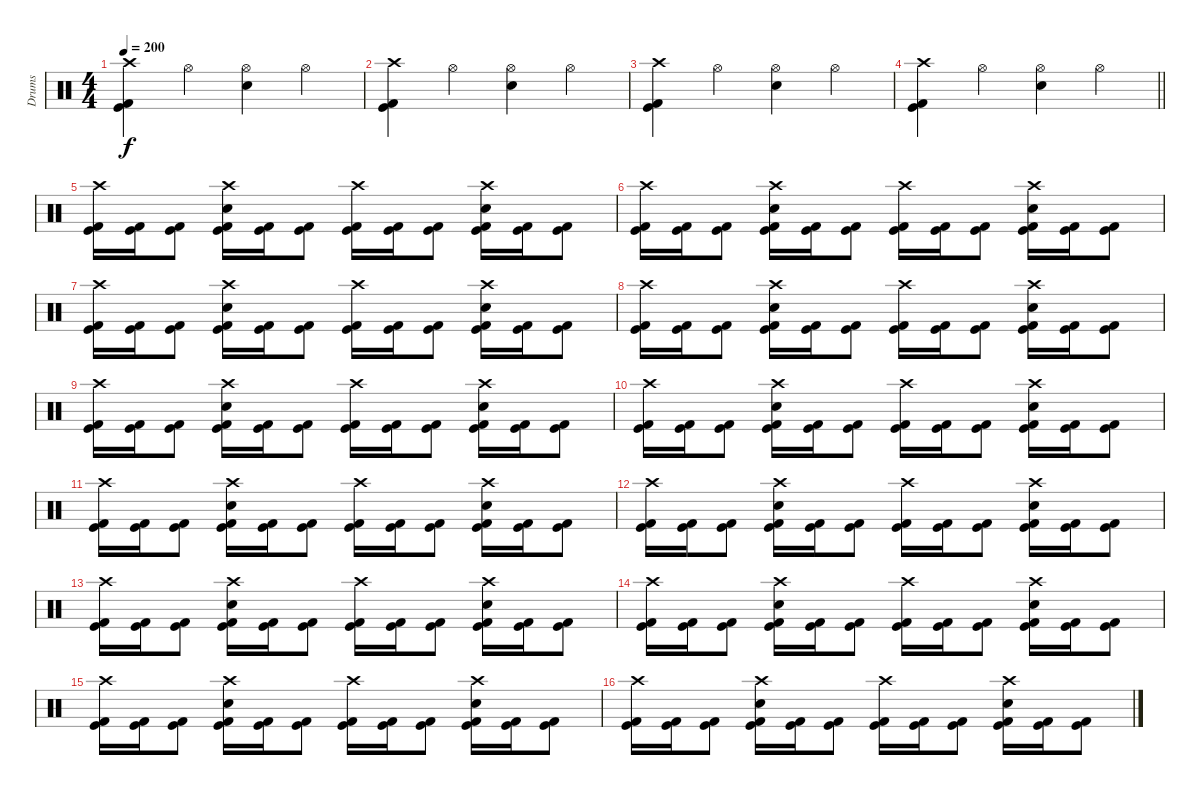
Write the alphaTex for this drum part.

\track ("Drums" "Drums") {instrument percussion}
\staff {score}
\articulation defaults
\ts (4 4)
\tempo 200
\clef neutral
\ks c
("Crash high (hit)" "Kick (hit) 2" "Kick (hit)").4{dy f} "Hi-Hat (open)".4 ("Hi-Hat (open)" "Electric Snare (hit)").4 "Hi-Hat (open)".4 |
("Crash high (hit)" "Kick (hit) 2" "Kick (hit)").4 "Hi-Hat (open)".4 ("Hi-Hat (open)" "Electric Snare (hit)").4 "Hi-Hat (open)".4 |
("Crash high (hit)" "Kick (hit) 2" "Kick (hit)").4 "Hi-Hat (open)".4 ("Hi-Hat (open)" "Electric Snare (hit)").4 "Hi-Hat (open)".4 |
\barLineRight lightlight
("Crash high (hit)" "Kick (hit) 2" "Kick (hit)").4 "Hi-Hat (open)".4 ("Hi-Hat (open)" "Electric Snare (hit)").4 "Hi-Hat (open)".4 |
("Crash high (hit)" "Kick (hit) 2" "Kick (hit)").16 ("Kick (hit) 2" "Kick (hit)").16 ("Kick (hit) 2" "Kick (hit)").8 ("Crash high (hit)" "Electric Snare (hit)" "Kick (hit) 2" "Kick (hit)").16 ("Kick (hit) 2" "Kick (hit)").16 ("Kick (hit) 2" "Kick (hit)").8 ("Crash high (hit)" "Kick (hit) 2" "Kick (hit)").16 ("Kick (hit) 2" "Kick (hit)").16 ("Kick (hit) 2" "Kick (hit)").8 ("Crash high (hit)" "Electric Snare (hit)" "Kick (hit) 2" "Kick (hit)").16 ("Kick (hit) 2" "Kick (hit)").16 ("Kick (hit) 2" "Kick (hit)").8 |
("Crash high (hit)" "Kick (hit) 2" "Kick (hit)").16 ("Kick (hit) 2" "Kick (hit)").16 ("Kick (hit) 2" "Kick (hit)").8 ("Crash high (hit)" "Electric Snare (hit)" "Kick (hit) 2" "Kick (hit)").16 ("Kick (hit) 2" "Kick (hit)").16 ("Kick (hit) 2" "Kick (hit)").8 ("Crash high (hit)" "Kick (hit) 2" "Kick (hit)").16 ("Kick (hit) 2" "Kick (hit)").16 ("Kick (hit) 2" "Kick (hit)").8 ("Crash high (hit)" "Electric Snare (hit)" "Kick (hit) 2" "Kick (hit)").16 ("Kick (hit) 2" "Kick (hit)").16 ("Kick (hit) 2" "Kick (hit)").8 |
("Crash high (hit)" "Kick (hit) 2" "Kick (hit)").16 ("Kick (hit) 2" "Kick (hit)").16 ("Kick (hit) 2" "Kick (hit)").8 ("Crash high (hit)" "Electric Snare (hit)" "Kick (hit) 2" "Kick (hit)").16 ("Kick (hit) 2" "Kick (hit)").16 ("Kick (hit) 2" "Kick (hit)").8 ("Crash high (hit)" "Kick (hit) 2" "Kick (hit)").16 ("Kick (hit) 2" "Kick (hit)").16 ("Kick (hit) 2" "Kick (hit)").8 ("Crash high (hit)" "Electric Snare (hit)" "Kick (hit) 2" "Kick (hit)").16 ("Kick (hit) 2" "Kick (hit)").16 ("Kick (hit) 2" "Kick (hit)").8 |
("Crash high (hit)" "Kick (hit) 2" "Kick (hit)").16 ("Kick (hit) 2" "Kick (hit)").16 ("Kick (hit) 2" "Kick (hit)").8 ("Crash high (hit)" "Electric Snare (hit)" "Kick (hit) 2" "Kick (hit)").16 ("Kick (hit) 2" "Kick (hit)").16 ("Kick (hit) 2" "Kick (hit)").8 ("Crash high (hit)" "Kick (hit) 2" "Kick (hit)").16 ("Kick (hit) 2" "Kick (hit)").16 ("Kick (hit) 2" "Kick (hit)").8 ("Crash high (hit)" "Electric Snare (hit)" "Kick (hit) 2" "Kick (hit)").16 ("Kick (hit) 2" "Kick (hit)").16 ("Kick (hit) 2" "Kick (hit)").8 |
("Crash high (hit)" "Kick (hit) 2" "Kick (hit)").16 ("Kick (hit) 2" "Kick (hit)").16 ("Kick (hit) 2" "Kick (hit)").8 ("Crash high (hit)" "Electric Snare (hit)" "Kick (hit) 2" "Kick (hit)").16 ("Kick (hit) 2" "Kick (hit)").16 ("Kick (hit) 2" "Kick (hit)").8 ("Crash high (hit)" "Kick (hit) 2" "Kick (hit)").16 ("Kick (hit) 2" "Kick (hit)").16 ("Kick (hit) 2" "Kick (hit)").8 ("Crash high (hit)" "Electric Snare (hit)" "Kick (hit) 2" "Kick (hit)").16 ("Kick (hit) 2" "Kick (hit)").16 ("Kick (hit) 2" "Kick (hit)").8 |
("Crash high (hit)" "Kick (hit) 2" "Kick (hit)").16 ("Kick (hit) 2" "Kick (hit)").16 ("Kick (hit) 2" "Kick (hit)").8 ("Crash high (hit)" "Electric Snare (hit)" "Kick (hit) 2" "Kick (hit)").16 ("Kick (hit) 2" "Kick (hit)").16 ("Kick (hit) 2" "Kick (hit)").8 ("Crash high (hit)" "Kick (hit) 2" "Kick (hit)").16 ("Kick (hit) 2" "Kick (hit)").16 ("Kick (hit) 2" "Kick (hit)").8 ("Crash high (hit)" "Electric Snare (hit)" "Kick (hit) 2" "Kick (hit)").16 ("Kick (hit) 2" "Kick (hit)").16 ("Kick (hit) 2" "Kick (hit)").8 |
("Crash high (hit)" "Kick (hit) 2" "Kick (hit)").16 ("Kick (hit) 2" "Kick (hit)").16 ("Kick (hit) 2" "Kick (hit)").8 ("Crash high (hit)" "Electric Snare (hit)" "Kick (hit) 2" "Kick (hit)").16 ("Kick (hit) 2" "Kick (hit)").16 ("Kick (hit) 2" "Kick (hit)").8 ("Crash high (hit)" "Kick (hit) 2" "Kick (hit)").16 ("Kick (hit) 2" "Kick (hit)").16 ("Kick (hit) 2" "Kick (hit)").8 ("Crash high (hit)" "Electric Snare (hit)" "Kick (hit) 2" "Kick (hit)").16 ("Kick (hit) 2" "Kick (hit)").16 ("Kick (hit) 2" "Kick (hit)").8 |
("Crash high (hit)" "Kick (hit) 2" "Kick (hit)").16 ("Kick (hit) 2" "Kick (hit)").16 ("Kick (hit) 2" "Kick (hit)").8 ("Crash high (hit)" "Electric Snare (hit)" "Kick (hit) 2" "Kick (hit)").16 ("Kick (hit) 2" "Kick (hit)").16 ("Kick (hit) 2" "Kick (hit)").8 ("Crash high (hit)" "Kick (hit) 2" "Kick (hit)").16 ("Kick (hit) 2" "Kick (hit)").16 ("Kick (hit) 2" "Kick (hit)").8 ("Crash high (hit)" "Electric Snare (hit)" "Kick (hit) 2" "Kick (hit)").16 ("Kick (hit) 2" "Kick (hit)").16 ("Kick (hit) 2" "Kick (hit)").8 |
("Crash high (hit)" "Kick (hit) 2" "Kick (hit)").16 ("Kick (hit) 2" "Kick (hit)").16 ("Kick (hit) 2" "Kick (hit)").8 ("Crash high (hit)" "Electric Snare (hit)" "Kick (hit) 2" "Kick (hit)").16 ("Kick (hit) 2" "Kick (hit)").16 ("Kick (hit) 2" "Kick (hit)").8 ("Crash high (hit)" "Kick (hit) 2" "Kick (hit)").16 ("Kick (hit) 2" "Kick (hit)").16 ("Kick (hit) 2" "Kick (hit)").8 ("Crash high (hit)" "Electric Snare (hit)" "Kick (hit) 2" "Kick (hit)").16 ("Kick (hit) 2" "Kick (hit)").16 ("Kick (hit) 2" "Kick (hit)").8 |
("Crash high (hit)" "Kick (hit) 2" "Kick (hit)").16 ("Kick (hit) 2" "Kick (hit)").16 ("Kick (hit) 2" "Kick (hit)").8 ("Crash high (hit)" "Electric Snare (hit)" "Kick (hit) 2" "Kick (hit)").16 ("Kick (hit) 2" "Kick (hit)").16 ("Kick (hit) 2" "Kick (hit)").8 ("Crash high (hit)" "Kick (hit) 2" "Kick (hit)").16 ("Kick (hit) 2" "Kick (hit)").16 ("Kick (hit) 2" "Kick (hit)").8 ("Crash high (hit)" "Electric Snare (hit)" "Kick (hit) 2" "Kick (hit)").16 ("Kick (hit) 2" "Kick (hit)").16 ("Kick (hit) 2" "Kick (hit)").8 |
("Crash high (hit)" "Kick (hit) 2" "Kick (hit)").16 ("Kick (hit) 2" "Kick (hit)").16 ("Kick (hit) 2" "Kick (hit)").8 ("Crash high (hit)" "Electric Snare (hit)" "Kick (hit) 2" "Kick (hit)").16 ("Kick (hit) 2" "Kick (hit)").16 ("Kick (hit) 2" "Kick (hit)").8 ("Crash high (hit)" "Kick (hit) 2" "Kick (hit)").16 ("Kick (hit) 2" "Kick (hit)").16 ("Kick (hit) 2" "Kick (hit)").8 ("Crash high (hit)" "Electric Snare (hit)" "Kick (hit) 2" "Kick (hit)").16 ("Kick (hit) 2" "Kick (hit)").16 ("Kick (hit) 2" "Kick (hit)").8 |
("Crash high (hit)" "Kick (hit) 2" "Kick (hit)").16 ("Kick (hit) 2" "Kick (hit)").16 ("Kick (hit) 2" "Kick (hit)").8 ("Crash high (hit)" "Electric Snare (hit)" "Kick (hit) 2" "Kick (hit)").16 ("Kick (hit) 2" "Kick (hit)").16 ("Kick (hit) 2" "Kick (hit)").8 ("Crash high (hit)" "Kick (hit) 2" "Kick (hit)").16 ("Kick (hit) 2" "Kick (hit)").16 ("Kick (hit) 2" "Kick (hit)").8 ("Crash high (hit)" "Electric Snare (hit)" "Kick (hit) 2" "Kick (hit)").16 ("Kick (hit) 2" "Kick (hit)").16 ("Kick (hit) 2" "Kick (hit)").8
